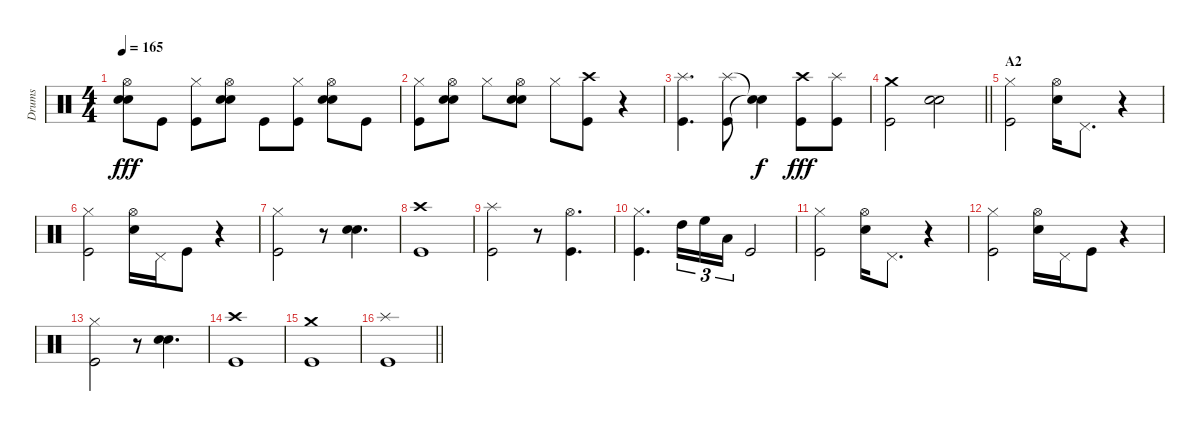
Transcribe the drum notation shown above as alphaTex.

\track ("Drums" "Drums") {instrument percussion}
\staff {score}
\articulation defaults
\ts (4 4)
\tempo 165
\clef neutral
\ks c
("Hi-Hat (open)" "Snare (hit) 2" "Snare (hit) 2").8{dy fff} "Kick (hit)".8 ("Hi-Hat (closed)" "Kick (hit)").8 ("Hi-Hat (open)" "Snare (hit) 2" "Snare (hit) 2").8 "Kick (hit)".8 ("Hi-Hat (closed)" "Kick (hit)").8 ("Hi-Hat (open)" "Snare (hit) 2" "Snare (hit) 2").8 "Kick (hit)".8 |
("Hi-Hat (closed)" "Kick (hit)").8 ("Hi-Hat (open)" "Snare (hit) 2" "Snare (hit) 2").8 "Hi-Hat (closed)".8 ("Hi-Hat (open)" "Snare (hit) 2" "Snare (hit) 2").8 "Hi-Hat (closed)".8 ("Crash high (hit)" "Kick (hit)").8 r.4 |
("Splash (hit)" "Kick (hit)").4{d} ("Splash (hit)" "Kick (hit)").8 ("Snare (hit)"{t} "Snare (hit)"{t}).4{dy f} ("Crash high (hit)" "Kick (hit)").8{dy fff} ("Splash (hit)" "Kick (hit)").8 |
\barLineRight lightlight
("Crash medium (hit)" "Kick (hit)").2 ("Snare (hit) 2" "Snare (hit) 2").2 |
\section ("" "A2")
("Hi-Hat (closed)" "Kick (hit)").2 ("Hi-Hat (open)" "Snare (hit) 2").16 "Pedal Hi-Hat (hit)".8{d} r.4 |
("Hi-Hat (closed)" "Kick (hit)").2 ("Hi-Hat (open)" "Snare (hit) 2").16 "Pedal Hi-Hat (hit)".16 "Kick (hit)".8 r.4 |
("Hi-Hat (closed)" "Kick (hit)").2 r.8 ("Snare (hit) 2" "Snare (hit) 2").4{d} |
("Crash high (hit)" "Kick (hit)").1 |
("Splash (hit)" "Kick (hit)").2 r.8 ("Hi-Hat (open)" "Kick (hit)").4{d} |
("Hi-Hat (closed)" "Kick (hit)").4{d} "High Tom (hit)".16{tu (3 2)} "High Floor Tom (hit)".16{tu (3 2)} "Low Tom (hit)".16{tu (3 2)} "Kick (hit)".2 |
("Hi-Hat (closed)" "Kick (hit)").2 ("Hi-Hat (open)" "Snare (hit) 2").16 "Pedal Hi-Hat (hit)".8{d} r.4 |
("Hi-Hat (closed)" "Kick (hit)").2 ("Hi-Hat (open)" "Snare (hit) 2").16 "Pedal Hi-Hat (hit)".16 "Kick (hit)".8 r.4 |
("Hi-Hat (closed)" "Kick (hit)").2 r.8 ("Snare (hit) 2" "Snare (hit) 2").4{d} |
("Crash high (hit)" "Kick (hit)").1 |
("Crash medium (hit)" "Kick (hit)").1 |
\barLineRight lightlight
("Splash (hit)" "Kick (hit)").1
